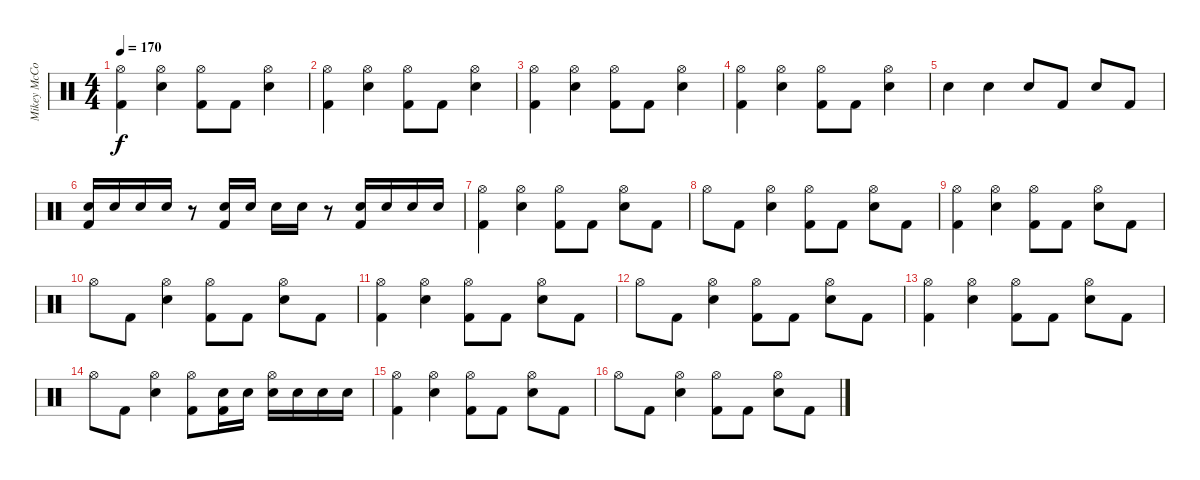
\track ("Mikey McCormack" "Mikey McCo") {instrument percussion}
\staff {score}
\articulation defaults
\ts (4 4)
\tempo 170
\clef neutral
\ks c
("Hi-Hat (open)" "Kick (hit) 2").4{dy f} ("Hi-Hat (open)" "Electric Snare (hit)").4 ("Hi-Hat (open)" "Kick (hit) 2").8 "Kick (hit) 2".8 ("Hi-Hat (open)" "Electric Snare (hit)").4 |
("Hi-Hat (open)" "Kick (hit) 2").4 ("Hi-Hat (open)" "Electric Snare (hit)").4 ("Hi-Hat (open)" "Kick (hit) 2").8 "Kick (hit) 2".8 ("Hi-Hat (open)" "Electric Snare (hit)").4 |
("Hi-Hat (open)" "Kick (hit) 2").4 ("Hi-Hat (open)" "Electric Snare (hit)").4 ("Hi-Hat (open)" "Kick (hit) 2").8 "Kick (hit) 2".8 ("Hi-Hat (open)" "Electric Snare (hit)").4 |
("Hi-Hat (open)" "Kick (hit) 2").4 ("Hi-Hat (open)" "Electric Snare (hit)").4 ("Hi-Hat (open)" "Kick (hit) 2").8 "Kick (hit) 2".8 ("Hi-Hat (open)" "Electric Snare (hit)").4 |
"Electric Snare (hit)".4 "Electric Snare (hit)".4 "Electric Snare (hit)".8 "Kick (hit) 2".8 "Electric Snare (hit)".8 "Kick (hit) 2".8 |
("Electric Snare (hit)" "Kick (hit) 2").16 "Electric Snare (hit)".16 "Electric Snare (hit)".16 "Electric Snare (hit)".16 r.8 ("Electric Snare (hit)" "Kick (hit) 2").16 "Electric Snare (hit)".16 "Electric Snare (hit)".16 "Electric Snare (hit)".16 r.8 ("Electric Snare (hit)" "Kick (hit) 2").16 "Electric Snare (hit)".16 "Electric Snare (hit)".16 "Electric Snare (hit)".16 |
("Hi-Hat (open)" "Kick (hit) 2").4 ("Hi-Hat (open)" "Electric Snare (hit)").4 ("Hi-Hat (open)" "Kick (hit) 2").8 "Kick (hit) 2".8 ("Hi-Hat (open)" "Electric Snare (hit)").8 "Kick (hit) 2".8 |
"Hi-Hat (open)".8 "Kick (hit) 2".8 ("Hi-Hat (open)" "Electric Snare (hit)").4 ("Hi-Hat (open)" "Kick (hit) 2").8 "Kick (hit) 2".8 ("Hi-Hat (open)" "Electric Snare (hit)").8 "Kick (hit) 2".8 |
("Hi-Hat (open)" "Kick (hit) 2").4 ("Hi-Hat (open)" "Electric Snare (hit)").4 ("Hi-Hat (open)" "Kick (hit) 2").8 "Kick (hit) 2".8 ("Hi-Hat (open)" "Electric Snare (hit)").8 "Kick (hit) 2".8 |
"Hi-Hat (open)".8 "Kick (hit) 2".8 ("Hi-Hat (open)" "Electric Snare (hit)").4 ("Hi-Hat (open)" "Kick (hit) 2").8 "Kick (hit) 2".8 ("Hi-Hat (open)" "Electric Snare (hit)").8 "Kick (hit) 2".8 |
("Hi-Hat (open)" "Kick (hit) 2").4 ("Hi-Hat (open)" "Electric Snare (hit)").4 ("Hi-Hat (open)" "Kick (hit) 2").8 "Kick (hit) 2".8 ("Hi-Hat (open)" "Electric Snare (hit)").8 "Kick (hit) 2".8 |
"Hi-Hat (open)".8 "Kick (hit) 2".8 ("Hi-Hat (open)" "Electric Snare (hit)").4 ("Hi-Hat (open)" "Kick (hit) 2").8 "Kick (hit) 2".8 ("Hi-Hat (open)" "Electric Snare (hit)").8 "Kick (hit) 2".8 |
("Hi-Hat (open)" "Kick (hit) 2").4 ("Hi-Hat (open)" "Electric Snare (hit)").4 ("Hi-Hat (open)" "Kick (hit) 2").8 "Kick (hit) 2".8 ("Hi-Hat (open)" "Electric Snare (hit)").8 "Kick (hit) 2".8 |
"Hi-Hat (open)".8 "Kick (hit) 2".8 ("Hi-Hat (open)" "Electric Snare (hit)").4 ("Hi-Hat (open)" "Kick (hit) 2").8 ("Electric Snare (hit)" "Kick (hit) 2").16 "Electric Snare (hit)".16 ("Hi-Hat (open)" "Electric Snare (hit)").16 "Electric Snare (hit)".16 "Electric Snare (hit)".16 "Electric Snare (hit)".16 |
("Hi-Hat (open)" "Kick (hit) 2").4 ("Hi-Hat (open)" "Electric Snare (hit)").4 ("Hi-Hat (open)" "Kick (hit) 2").8 "Kick (hit) 2".8 ("Hi-Hat (open)" "Electric Snare (hit)").8 "Kick (hit) 2".8 |
"Hi-Hat (open)".8 "Kick (hit) 2".8 ("Hi-Hat (open)" "Electric Snare (hit)").4 ("Hi-Hat (open)" "Kick (hit) 2").8 "Kick (hit) 2".8 ("Hi-Hat (open)" "Electric Snare (hit)").8 "Kick (hit) 2".8
